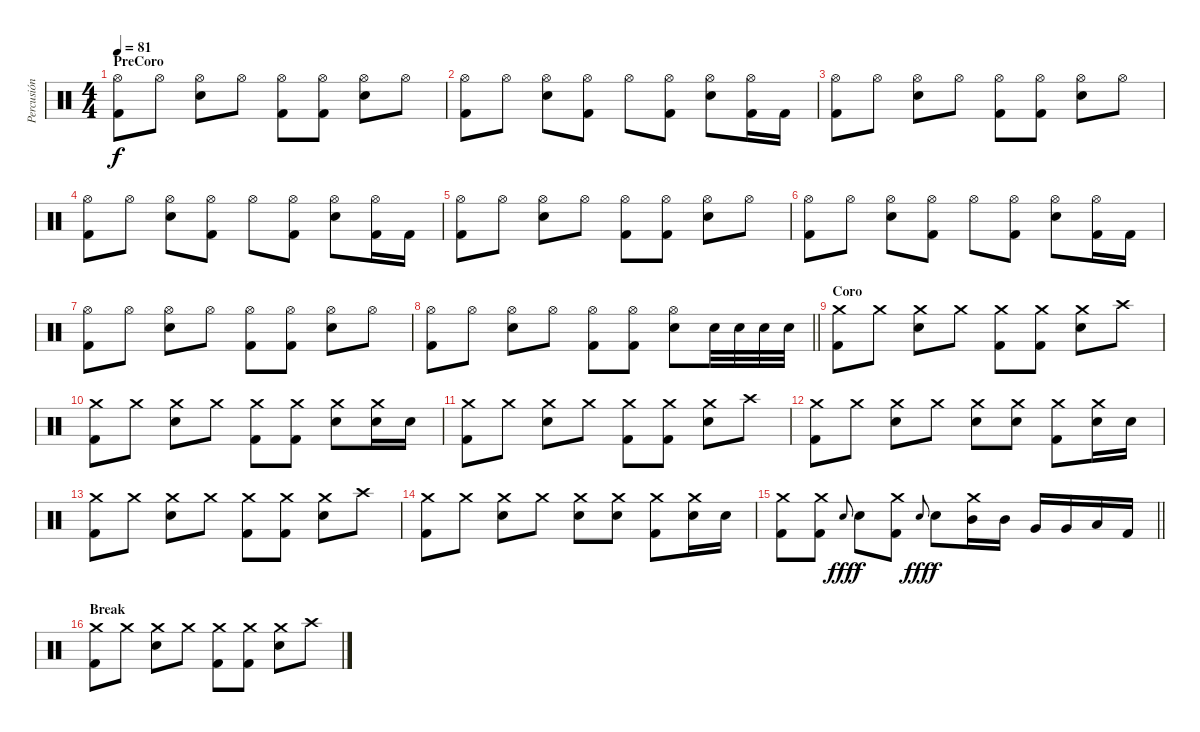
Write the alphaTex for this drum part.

\track ("Percusión" "Percusión") {instrument percussion}
\staff {score}
\articulation defaults
\ts (4 4)
\section ("" "PreCoro")
\tempo 81
\clef neutral
\ks c
("Hi-Hat (open)" "Kick (hit) 2").8{dy f} "Hi-Hat (open)".8 ("Hi-Hat (open)" "Electric Snare (hit)").8 "Hi-Hat (open)".8 ("Hi-Hat (open)" "Kick (hit) 2").8 ("Hi-Hat (open)" "Kick (hit) 2").8 ("Hi-Hat (open)" "Electric Snare (hit)").8 "Hi-Hat (open)".8 |
("Hi-Hat (open)" "Kick (hit) 2").8 "Hi-Hat (open)".8 ("Hi-Hat (open)" "Electric Snare (hit)").8 ("Hi-Hat (open)" "Kick (hit) 2").8 "Hi-Hat (open)".8 ("Hi-Hat (open)" "Kick (hit) 2").8 ("Hi-Hat (open)" "Electric Snare (hit)").8 ("Hi-Hat (open)" "Kick (hit) 2").16 "Kick (hit) 2".16 |
("Hi-Hat (open)" "Kick (hit) 2").8 "Hi-Hat (open)".8 ("Hi-Hat (open)" "Electric Snare (hit)").8 "Hi-Hat (open)".8 ("Hi-Hat (open)" "Kick (hit) 2").8 ("Hi-Hat (open)" "Kick (hit) 2").8 ("Hi-Hat (open)" "Electric Snare (hit)").8 "Hi-Hat (open)".8 |
("Hi-Hat (open)" "Kick (hit) 2").8 "Hi-Hat (open)".8 ("Hi-Hat (open)" "Electric Snare (hit)").8 ("Hi-Hat (open)" "Kick (hit) 2").8 "Hi-Hat (open)".8 ("Hi-Hat (open)" "Kick (hit) 2").8 ("Hi-Hat (open)" "Electric Snare (hit)").8 ("Hi-Hat (open)" "Kick (hit) 2").16 "Kick (hit) 2".16 |
("Hi-Hat (open)" "Kick (hit) 2").8 "Hi-Hat (open)".8 ("Hi-Hat (open)" "Electric Snare (hit)").8 "Hi-Hat (open)".8 ("Hi-Hat (open)" "Kick (hit) 2").8 ("Hi-Hat (open)" "Kick (hit) 2").8 ("Hi-Hat (open)" "Electric Snare (hit)").8 "Hi-Hat (open)".8 |
("Hi-Hat (open)" "Kick (hit) 2").8 "Hi-Hat (open)".8 ("Hi-Hat (open)" "Electric Snare (hit)").8 ("Hi-Hat (open)" "Kick (hit) 2").8 "Hi-Hat (open)".8 ("Hi-Hat (open)" "Kick (hit) 2").8 ("Hi-Hat (open)" "Electric Snare (hit)").8 ("Hi-Hat (open)" "Kick (hit) 2").16 "Kick (hit) 2".16 |
("Hi-Hat (open)" "Kick (hit) 2").8 "Hi-Hat (open)".8 ("Hi-Hat (open)" "Electric Snare (hit)").8 "Hi-Hat (open)".8 ("Hi-Hat (open)" "Kick (hit) 2").8 ("Hi-Hat (open)" "Kick (hit) 2").8 ("Hi-Hat (open)" "Electric Snare (hit)").8 "Hi-Hat (open)".8 |
\barLineRight lightlight
("Hi-Hat (open)" "Kick (hit) 2").8 "Hi-Hat (open)".8 ("Hi-Hat (open)" "Electric Snare (hit)").8 "Hi-Hat (open)".8 ("Hi-Hat (open)" "Kick (hit) 2").8 ("Hi-Hat (open)" "Kick (hit) 2").8 ("Hi-Hat (open)" "Electric Snare (hit)").8 "Electric Snare (hit)".32 "Electric Snare (hit)".32 "Electric Snare (hit)".32 "Electric Snare (hit)".32 |
\section ("" "Coro")
("Crash medium (hit)" "Kick (hit) 2").8 "Crash medium (hit)".8 ("Crash medium (hit)" "Electric Snare (hit)").8 "Crash medium (hit)".8 ("Crash medium (hit)" "Kick (hit) 2").8 ("Crash medium (hit)" "Kick (hit) 2").8 ("Crash medium (hit)" "Electric Snare (hit)").8 "Crash high (hit)".8 |
("Crash medium (hit)" "Kick (hit) 2").8 "Crash medium (hit)".8 ("Crash medium (hit)" "Electric Snare (hit)").8 "Crash medium (hit)".8 ("Crash medium (hit)" "Kick (hit) 2").8 ("Crash medium (hit)" "Kick (hit) 2").8 ("Crash medium (hit)" "Electric Snare (hit)").8 ("Crash medium (hit)" "Electric Snare (hit)").16 "Electric Snare (hit)".16 |
("Crash medium (hit)" "Kick (hit) 2").8 "Crash medium (hit)".8 ("Crash medium (hit)" "Electric Snare (hit)").8 "Crash medium (hit)".8 ("Crash medium (hit)" "Kick (hit) 2").8 ("Crash medium (hit)" "Kick (hit) 2").8 ("Crash medium (hit)" "Electric Snare (hit)").8 "Crash high (hit)".8 |
("Crash medium (hit)" "Kick (hit) 2").8 "Crash medium (hit)".8 ("Crash medium (hit)" "Electric Snare (hit)").8 "Crash medium (hit)".8 ("Crash medium (hit)" "Electric Snare (hit)").8 ("Crash medium (hit)" "Electric Snare (hit)").8 ("Crash medium (hit)" "Kick (hit) 2").8 ("Crash medium (hit)" "Electric Snare (hit)").16 "Electric Snare (hit)".16 |
("Crash medium (hit)" "Kick (hit) 2").8 "Crash medium (hit)".8 ("Crash medium (hit)" "Electric Snare (hit)").8 "Crash medium (hit)".8 ("Crash medium (hit)" "Kick (hit) 2").8 ("Crash medium (hit)" "Kick (hit) 2").8 ("Crash medium (hit)" "Electric Snare (hit)").8 "Crash high (hit)".8 |
("Crash medium (hit)" "Kick (hit) 2").8 "Crash medium (hit)".8 ("Crash medium (hit)" "Electric Snare (hit)").8 "Crash medium (hit)".8 ("Crash medium (hit)" "Electric Snare (hit)").8 ("Crash medium (hit)" "Electric Snare (hit)").8 ("Crash medium (hit)" "Kick (hit) 2").8 ("Crash medium (hit)" "Electric Snare (hit)").16 "Electric Snare (hit)".16 |
\barLineRight lightlight
("Crash medium (hit)" "Kick (hit) 2").8 ("Crash medium (hit)" "Kick (hit) 2").8 "Electric Snare (hit)".8{gr onbeat dy fff} "Electric Snare (hit)".8{dy f} ("Crash medium (hit)" "Kick (hit) 2").8 "Electric Snare (hit)".8{gr onbeat dy fff} "Electric Snare (hit)".8{dy f} ("Crash medium (hit)" "Mid Tom (hit)").16 "Mid Tom (hit)".16 "Very Low Tom (hit)".16 "Very Low Tom (hit)".16 "Low Floor Tom (hit)".16 "Kick (hit) 2".16 |
\section ("" "Break")
("Crash medium (hit)" "Kick (hit) 2").8 "Crash medium (hit)".8 ("Crash medium (hit)" "Electric Snare (hit)").8 "Crash medium (hit)".8 ("Crash medium (hit)" "Kick (hit) 2").8 ("Crash medium (hit)" "Kick (hit) 2").8 ("Crash medium (hit)" "Electric Snare (hit)").8 "Crash high (hit)".8
